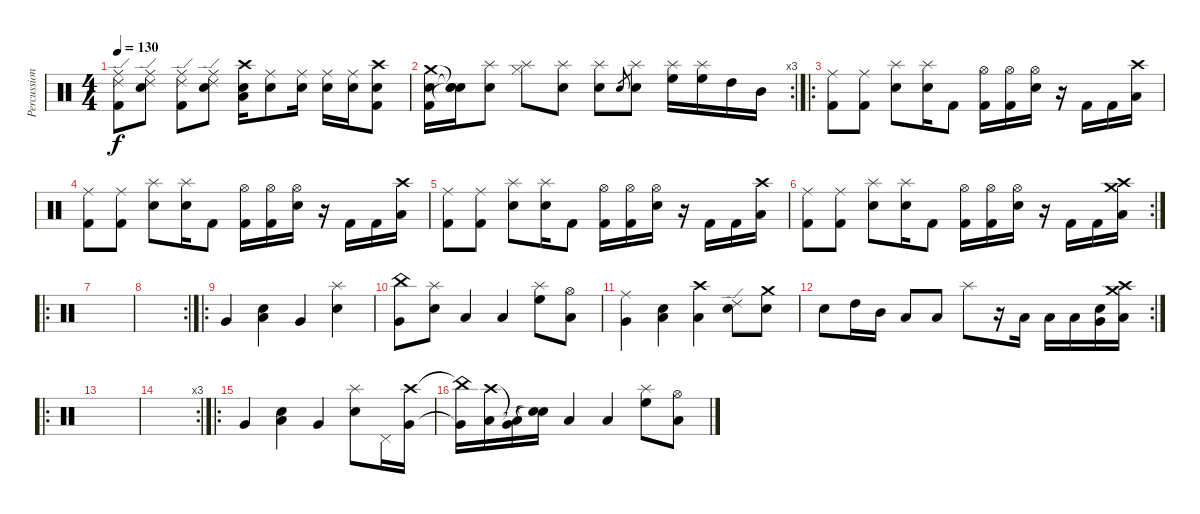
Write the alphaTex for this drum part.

\track ("Percussion" "Percussion") {instrument percussion}
\staff {score}
\articulation defaults
\ts (4 4)
\tempo 130
\clef neutral
\ks c
("Ride (middle)" "Kick (hit) 2" "Ride (edge) 2").8{dy f} ("Ride (middle)" "Snare (hit) 2" "Ride (edge) 2").8 ("Ride (middle)" "Kick (hit) 2" "Ride (edge) 2").8 ("Ride (middle)" "Electric Snare (hit)" "Ride (edge) 2").8 ("Crash high (hit)" "Low Tom (hit)" "Snare (hit) 2").16 ("Ride (middle)" "Electric Snare (hit)").8 ("Ride (middle)" "Electric Snare (hit)").16 ("Ride (middle)" "Electric Snare (hit)").16 ("Ride (middle)" "Electric Snare (hit)").16 ("Crash high (hit)" "Electric Snare (hit)" "Kick (hit) 2").8 |
\rc 3
("Crash medium (hit)" "Electric Snare (hit)" "Kick (hit) 2").16 ("Snare (hit)"{t} "Snare (hit)"{t} "Snare (hit)"{t}).16 ("Splash (hit)" "Electric Snare (hit)").8 ("Splash (hit)" "Hi-Hat (closed)").8 ("Splash (hit)" "Electric Snare (hit)").8 ("Splash (hit)" "Electric Snare (hit)").8 "Snare (hit) 2".8{gr} ("Splash (hit)" "Snare (hit) 2").8 ("Splash (hit)" "High Floor Tom (hit)").16 ("Splash (hit)" "High Floor Tom (hit)").16 "High Tom (hit)".16 "Mid Tom (hit)".16 |
\ro
("Kick (hit) 2" "Ride (middle)").8 ("Kick (hit) 2" "Ride (middle)").8 ("Electric Snare (hit)" "Splash (hit)").8 ("Electric Snare (hit)" "Splash (hit)").16 "Kick (hit) 2".8 ("Kick (hit) 2" "Hi-Hat (open)").16 ("Kick (hit) 2" "Hi-Hat (open)").16 ("Hi-Hat (open)" "Electric Snare (hit)").16 r.16 "Kick (hit) 2".16 "Kick (hit) 2".16 ("Crash high (hit)" "Low Tom (hit)").16 |
("Kick (hit) 2" "Ride (middle)").8 ("Kick (hit) 2" "Ride (middle)").8 ("Electric Snare (hit)" "Splash (hit)").8 ("Electric Snare (hit)" "Splash (hit)").16 "Kick (hit) 2".8 ("Kick (hit) 2" "Hi-Hat (open)").16 ("Kick (hit) 2" "Hi-Hat (open)").16 ("Hi-Hat (open)" "Electric Snare (hit)").16 r.16 "Kick (hit) 2".16 "Kick (hit) 2".16 ("Crash high (hit)" "Low Tom (hit)").16 |
("Kick (hit) 2" "Ride (middle)").8 ("Kick (hit) 2" "Ride (middle)").8 ("Electric Snare (hit)" "Splash (hit)").8 ("Electric Snare (hit)" "Splash (hit)").16 "Kick (hit) 2".8 ("Kick (hit) 2" "Hi-Hat (open)").16 ("Kick (hit) 2" "Hi-Hat (open)").16 ("Hi-Hat (open)" "Electric Snare (hit)").16 r.16 "Kick (hit) 2".16 "Kick (hit) 2".16 ("Crash high (hit)" "Low Tom (hit)").16 |
\rc 2
("Kick (hit) 2" "Ride (middle)").8 ("Kick (hit) 2" "Ride (middle)").8 ("Electric Snare (hit)" "Splash (hit)").8 ("Electric Snare (hit)" "Splash (hit)").16 "Kick (hit) 2".8 ("Kick (hit) 2" "Hi-Hat (open)").16 ("Kick (hit) 2" "Hi-Hat (open)").16 ("Hi-Hat (open)" "Electric Snare (hit)").16 r.16 "Kick (hit) 2".16 "Kick (hit) 2".16 ("Crash high (hit)" "Low Tom (hit)" "Crash medium (hit)").16 |
\ro
|
\rc 2
|
\ro "Very Low Tom (hit)".4
("Electric Snare (hit)" "Low Tom (hit)").4 "Very Low Tom (hit)".4 ("Snare (hit) 2" "Splash (hit)").4 |
("Very Low Tom (hit)" "China (hit)").8 ("Electric Snare (hit)" "Splash (hit)").8 "Low Floor Tom (hit)".4 "Low Tom (hit)".4 ("High Floor Tom (hit)" "Splash (hit)").8 ("Low Tom (hit)" "Hi-Hat (open)").8 |
("Very Low Tom (hit)" "Ride (middle)").4 ("Electric Snare (hit)" "Low Tom (hit)").4 ("Crash high (hit)" "Low Tom (hit)").4 ("Ride (edge) 2" "Snare (hit) 2").8 ("Crash medium (hit)" "Snare (hit) 2").8 |
\rc 2 "Electric Snare (hit)".8 "High Tom (hit)".16 "Mid Tom (hit)".16 "Low Tom (hit)".8 "Low Tom (hit)".8 "Splash (hit)".8
r.16 "Low Floor Tom (hit)".16 "Low Floor Tom (hit)".16 "Low Floor Tom (hit)".16 ("Electric Snare (hit)" "Very Low Tom (hit)").16 ("Crash medium (hit)" "Crash high (hit)" "Low Tom (hit)").16 |
\ro
|
\rc 3
|
\ro "Very Low Tom (hit)".4
("Electric Snare (hit)" "Low Tom (hit)").4 "Very Low Tom (hit)".4 ("Snare (hit) 2" "Splash (hit)").8 "Pedal Hi-Hat (hit)".16 ("Very Low Tom (hit)" "Crash high (hit)").16 |
("Very Low Tom (hit)"{t} "China (hit)"{t}).16 ("Low Tom (hit)" "Crash high (hit)").16 ("Very Low Tom (hit)"{t} "Low Tom (hit)"{t}).16 ("Snare (hit)"{t} "Snare (hit)"{t}).16 "Low Floor Tom (hit)".4 "Low Tom (hit)".4 ("High Floor Tom (hit)" "Splash (hit)").8 ("Low Tom (hit)" "Hi-Hat (open)").8
